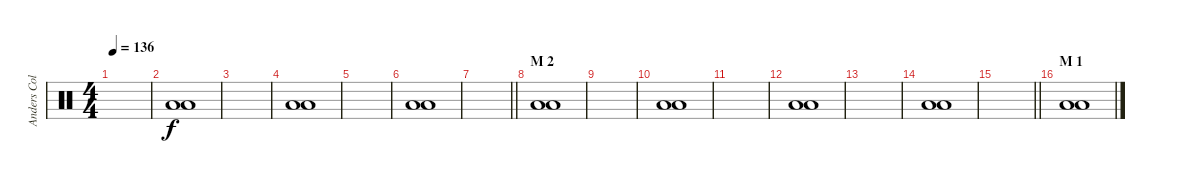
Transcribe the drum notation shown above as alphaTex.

\track ("Anders Colsefini" "Anders Col") {instrument percussion}
\staff {score}
\articulation defaults
\ts (4 4)
\tempo 136
\clef neutral
\ks c
|
("Low Floor Tom (hit)" "Low Floor Tom (hit)").1 |
|
("Low Floor Tom (hit)" "Low Floor Tom (hit)").1 |
|
("Low Floor Tom (hit)" "Low Floor Tom (hit)").1 |
\barLineRight lightlight
|
\section ("" "M 2")
("Low Floor Tom (hit)" "Low Floor Tom (hit)").1 |
|
("Low Floor Tom (hit)" "Low Floor Tom (hit)").1 |
|
("Low Floor Tom (hit)" "Low Floor Tom (hit)").1 |
|
("Low Floor Tom (hit)" "Low Floor Tom (hit)").1 |
\barLineRight lightlight
|
\section ("" "M 1")
("Low Floor Tom (hit)" "Low Floor Tom (hit)").1
